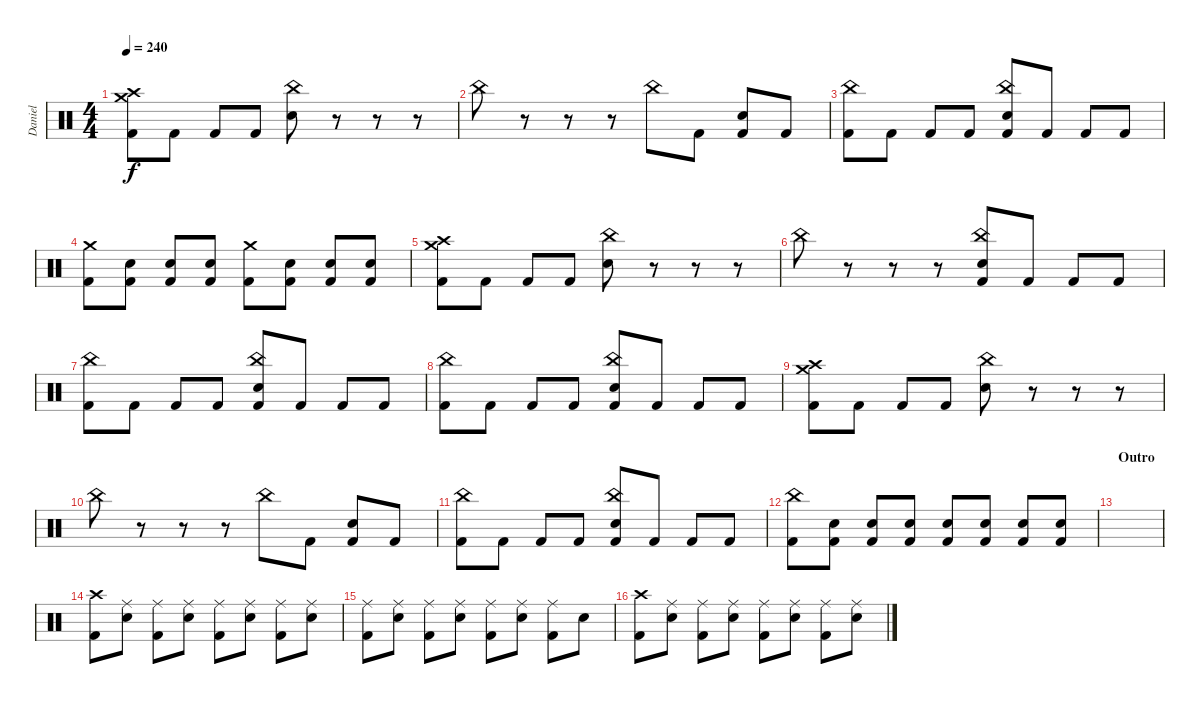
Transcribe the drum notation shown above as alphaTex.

\track ("Daniel" "Daniel") {instrument percussion}
\staff {score}
\articulation defaults
\ts (4 4)
\tempo 240
\clef neutral
\ks c
("Crash medium (hit)" "Crash high (hit)" "Kick (hit) 2").8{dy f} "Kick (hit) 2".8 "Kick (hit) 2".8 "Kick (hit) 2".8 ("China (hit)" "Electric Snare (hit)").8 r.8 r.8 r.8 |
"China (hit)".8 r.8 r.8 r.8 "China (hit)".8 "Kick (hit) 2".8 ("Electric Snare (hit)" "Kick (hit) 2").8 "Kick (hit) 2".8 |
("China (hit)" "Kick (hit) 2").8 "Kick (hit) 2".8 "Kick (hit) 2".8 "Kick (hit) 2".8 ("China (hit)" "Electric Snare (hit)" "Kick (hit) 2").8 "Kick (hit) 2".8 "Kick (hit) 2".8 "Kick (hit) 2".8 |
("Crash medium (hit)" "Kick (hit) 2").8 ("Electric Snare (hit)" "Kick (hit) 2").8 ("Electric Snare (hit)" "Kick (hit) 2").8 ("Electric Snare (hit)" "Kick (hit) 2").8 ("Crash medium (hit)" "Kick (hit) 2").8 ("Electric Snare (hit)" "Kick (hit) 2").8 ("Electric Snare (hit)" "Kick (hit) 2").8 ("Electric Snare (hit)" "Kick (hit) 2").8 |
("Crash medium (hit)" "Crash high (hit)" "Kick (hit) 2").8 "Kick (hit) 2".8 "Kick (hit) 2".8 "Kick (hit) 2".8 ("China (hit)" "Electric Snare (hit)").8 r.8 r.8 r.8 |
"China (hit)".8 r.8 r.8 r.8 ("China (hit)" "Electric Snare (hit)" "Kick (hit) 2").8 "Kick (hit) 2".8 "Kick (hit) 2".8 "Kick (hit) 2".8 |
("China (hit)" "Kick (hit) 2").8 "Kick (hit) 2".8 "Kick (hit) 2".8 "Kick (hit) 2".8 ("China (hit)" "Electric Snare (hit)" "Kick (hit) 2").8 "Kick (hit) 2".8 "Kick (hit) 2".8 "Kick (hit) 2".8 |
("China (hit)" "Kick (hit) 2").8 "Kick (hit) 2".8 "Kick (hit) 2".8 "Kick (hit) 2".8 ("China (hit)" "Electric Snare (hit)" "Kick (hit) 2").8 "Kick (hit) 2".8 "Kick (hit) 2".8 "Kick (hit) 2".8 |
("Crash medium (hit)" "Crash high (hit)" "Kick (hit) 2").8 "Kick (hit) 2".8 "Kick (hit) 2".8 "Kick (hit) 2".8 ("China (hit)" "Electric Snare (hit)").8 r.8 r.8 r.8 |
"China (hit)".8 r.8 r.8 r.8 "China (hit)".8 "Kick (hit) 2".8 ("Electric Snare (hit)" "Kick (hit) 2").8 "Kick (hit) 2".8 |
("China (hit)" "Kick (hit) 2").8 "Kick (hit) 2".8 "Kick (hit) 2".8 "Kick (hit) 2".8 ("China (hit)" "Electric Snare (hit)" "Kick (hit) 2").8 "Kick (hit) 2".8 "Kick (hit) 2".8 "Kick (hit) 2".8 |
("China (hit)" "Kick (hit) 2").8 ("Electric Snare (hit)" "Kick (hit) 2").8 ("Electric Snare (hit)" "Kick (hit) 2").8 ("Electric Snare (hit)" "Kick (hit) 2").8 ("Electric Snare (hit)" "Kick (hit) 2").8 ("Electric Snare (hit)" "Kick (hit) 2").8 ("Electric Snare (hit)" "Kick (hit) 2").8 ("Electric Snare (hit)" "Kick (hit) 2").8 |
\section ("" "Outro")
|
("Crash high (hit)" "Kick (hit) 2").8 ("Ride (middle)" "Electric Snare (hit)").8 ("Ride (middle)" "Kick (hit) 2").8 ("Ride (middle)" "Electric Snare (hit)").8 ("Ride (middle)" "Kick (hit) 2").8 ("Ride (middle)" "Electric Snare (hit)").8 ("Ride (middle)" "Kick (hit) 2").8 ("Ride (middle)" "Electric Snare (hit)").8 |
("Ride (middle)" "Kick (hit) 2").8 ("Ride (middle)" "Electric Snare (hit)").8 ("Ride (middle)" "Kick (hit) 2").8 ("Ride (middle)" "Electric Snare (hit)").8 ("Ride (middle)" "Kick (hit) 2").8 ("Ride (middle)" "Electric Snare (hit)").8 ("Ride (middle)" "Kick (hit) 2").8 "Electric Snare (hit)".8 |
("Crash high (hit)" "Kick (hit) 2").8 ("Ride (middle)" "Electric Snare (hit)").8 ("Ride (middle)" "Kick (hit) 2").8 ("Ride (middle)" "Electric Snare (hit)").8 ("Ride (middle)" "Kick (hit) 2").8 ("Ride (middle)" "Electric Snare (hit)").8 ("Ride (middle)" "Kick (hit) 2").8 ("Ride (middle)" "Electric Snare (hit)").8
